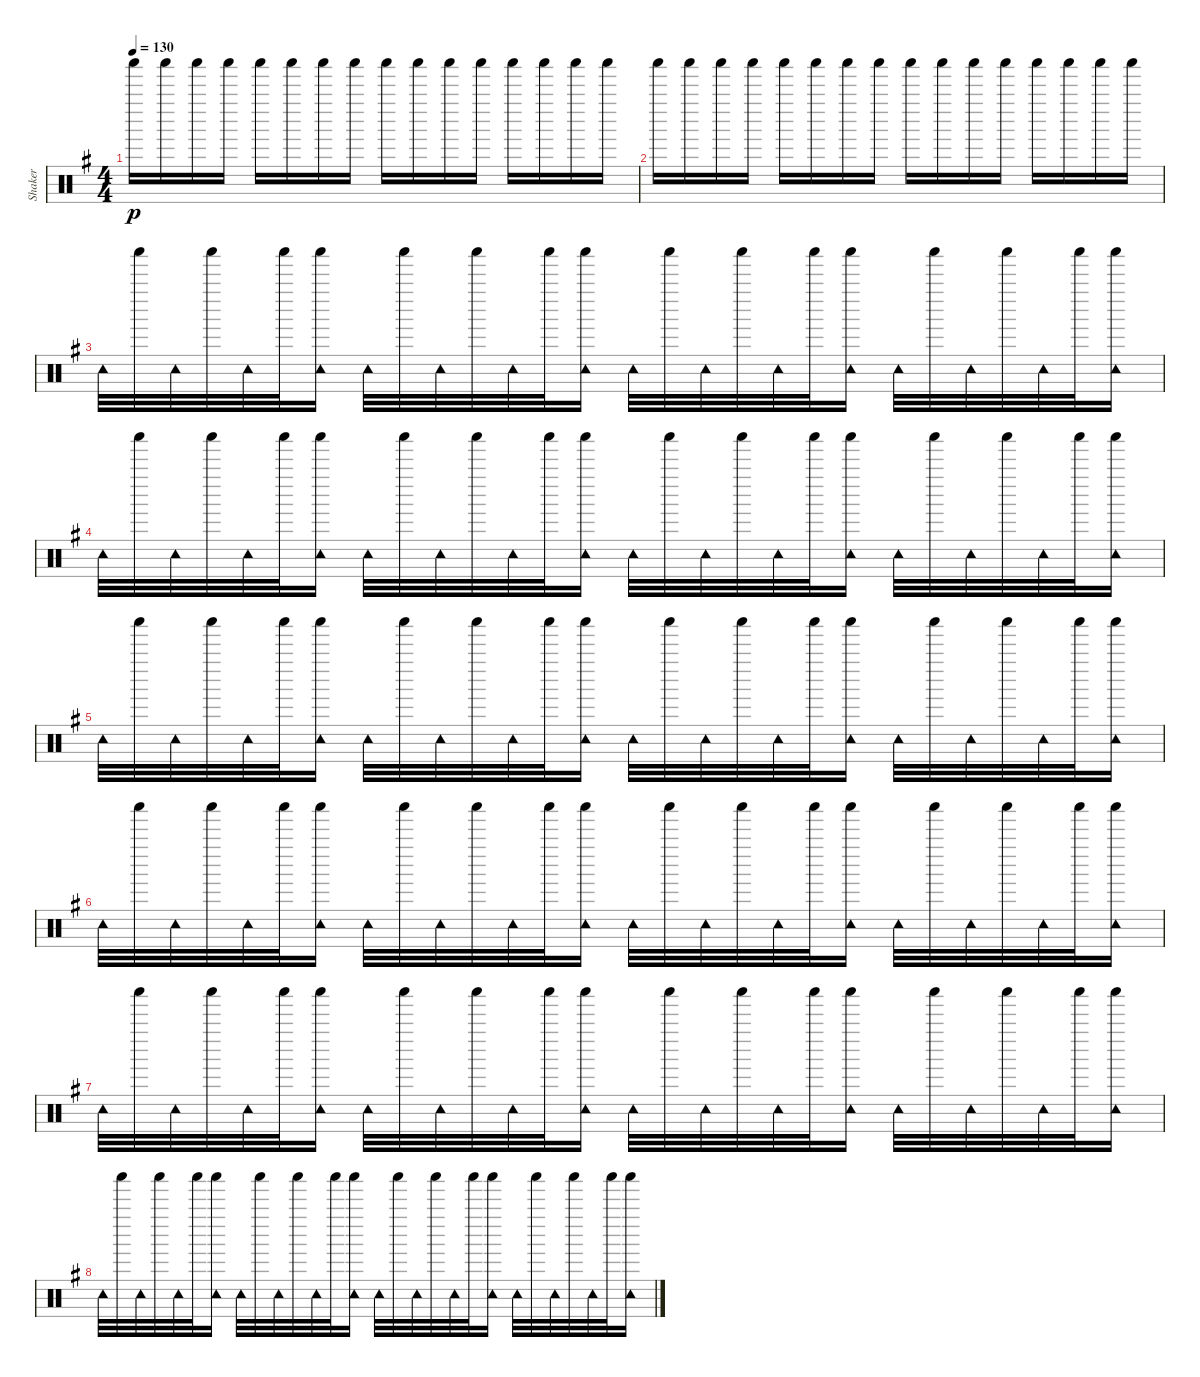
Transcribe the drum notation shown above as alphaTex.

\track ("Shaker" "Shaker") {instrument percussion}
\staff {score}
\articulation defaults
\ts (4 4)
\tempo 130
\clef neutral
\ks g "Shaker (hit)".16{dy p} "Shaker (hit)".16 "Shaker (hit)".16 "Shaker (hit)".16 "Shaker (hit)".16 "Shaker (hit)".16 "Shaker (hit)".16 "Shaker (hit)".16 "Shaker (hit)".16 "Shaker (hit)".16 "Shaker (hit)".16 "Shaker (hit)".16 "Shaker (hit)".16 "Shaker (hit)".16 "Shaker (hit)".16 "Shaker (hit)".16
|
"Shaker (hit)".16 "Shaker (hit)".16 "Shaker (hit)".16 "Shaker (hit)".16 "Shaker (hit)".16 "Shaker (hit)".16 "Shaker (hit)".16 "Shaker (hit)".16 "Shaker (hit)".16 "Shaker (hit)".16 "Shaker (hit)".16 "Shaker (hit)".16 "Shaker (hit)".16 "Shaker (hit)".16 "Shaker (hit)".16 "Shaker (hit)".16 |
"Tambourine (hit)".32 "Shaker (hit)".32 "Tambourine (hit)".32 "Shaker (hit)".32 "Tambourine (hit)".32 "Shaker (hit)".32 ("Tambourine (hit)" "Shaker (hit)").16 "Tambourine (hit)".32 "Shaker (hit)".32 "Tambourine (hit)".32 "Shaker (hit)".32 "Tambourine (hit)".32 "Shaker (hit)".32 ("Tambourine (hit)" "Shaker (hit)").16 "Tambourine (hit)".32 "Shaker (hit)".32 "Tambourine (hit)".32 "Shaker (hit)".32 "Tambourine (hit)".32 "Shaker (hit)".32 ("Tambourine (hit)" "Shaker (hit)").16 "Tambourine (hit)".32 "Shaker (hit)".32 "Tambourine (hit)".32 "Shaker (hit)".32 "Tambourine (hit)".32 "Shaker (hit)".32 ("Tambourine (hit)" "Shaker (hit)").16 |
"Tambourine (hit)".32 "Shaker (hit)".32 "Tambourine (hit)".32 "Shaker (hit)".32 "Tambourine (hit)".32 "Shaker (hit)".32 ("Tambourine (hit)" "Shaker (hit)").16 "Tambourine (hit)".32 "Shaker (hit)".32 "Tambourine (hit)".32 "Shaker (hit)".32 "Tambourine (hit)".32 "Shaker (hit)".32 ("Tambourine (hit)" "Shaker (hit)").16 "Tambourine (hit)".32 "Shaker (hit)".32 "Tambourine (hit)".32 "Shaker (hit)".32 "Tambourine (hit)".32 "Shaker (hit)".32 ("Tambourine (hit)" "Shaker (hit)").16 "Tambourine (hit)".32 "Shaker (hit)".32 "Tambourine (hit)".32 "Shaker (hit)".32 "Tambourine (hit)".32 "Shaker (hit)".32 ("Tambourine (hit)" "Shaker (hit)").16 |
"Tambourine (hit)".32 "Shaker (hit)".32 "Tambourine (hit)".32 "Shaker (hit)".32 "Tambourine (hit)".32 "Shaker (hit)".32 ("Tambourine (hit)" "Shaker (hit)").16 "Tambourine (hit)".32 "Shaker (hit)".32 "Tambourine (hit)".32 "Shaker (hit)".32 "Tambourine (hit)".32 "Shaker (hit)".32 ("Tambourine (hit)" "Shaker (hit)").16 "Tambourine (hit)".32 "Shaker (hit)".32 "Tambourine (hit)".32 "Shaker (hit)".32 "Tambourine (hit)".32 "Shaker (hit)".32 ("Tambourine (hit)" "Shaker (hit)").16 "Tambourine (hit)".32 "Shaker (hit)".32 "Tambourine (hit)".32 "Shaker (hit)".32 "Tambourine (hit)".32 "Shaker (hit)".32 ("Tambourine (hit)" "Shaker (hit)").16 |
"Tambourine (hit)".32 "Shaker (hit)".32 "Tambourine (hit)".32 "Shaker (hit)".32 "Tambourine (hit)".32 "Shaker (hit)".32 ("Tambourine (hit)" "Shaker (hit)").16 "Tambourine (hit)".32 "Shaker (hit)".32 "Tambourine (hit)".32 "Shaker (hit)".32 "Tambourine (hit)".32 "Shaker (hit)".32 ("Tambourine (hit)" "Shaker (hit)").16 "Tambourine (hit)".32 "Shaker (hit)".32 "Tambourine (hit)".32 "Shaker (hit)".32 "Tambourine (hit)".32 "Shaker (hit)".32 ("Tambourine (hit)" "Shaker (hit)").16 "Tambourine (hit)".32 "Shaker (hit)".32 "Tambourine (hit)".32 "Shaker (hit)".32 "Tambourine (hit)".32 "Shaker (hit)".32 ("Tambourine (hit)" "Shaker (hit)").16 |
"Tambourine (hit)".32 "Shaker (hit)".32 "Tambourine (hit)".32 "Shaker (hit)".32 "Tambourine (hit)".32 "Shaker (hit)".32 ("Tambourine (hit)" "Shaker (hit)").16 "Tambourine (hit)".32 "Shaker (hit)".32 "Tambourine (hit)".32 "Shaker (hit)".32 "Tambourine (hit)".32 "Shaker (hit)".32 ("Tambourine (hit)" "Shaker (hit)").16 "Tambourine (hit)".32 "Shaker (hit)".32 "Tambourine (hit)".32 "Shaker (hit)".32 "Tambourine (hit)".32 "Shaker (hit)".32 ("Tambourine (hit)" "Shaker (hit)").16 "Tambourine (hit)".32 "Shaker (hit)".32 "Tambourine (hit)".32 "Shaker (hit)".32 "Tambourine (hit)".32 "Shaker (hit)".32 ("Tambourine (hit)" "Shaker (hit)").16 |
"Tambourine (hit)".32 "Shaker (hit)".32 "Tambourine (hit)".32 "Shaker (hit)".32 "Tambourine (hit)".32 "Shaker (hit)".32 ("Tambourine (hit)" "Shaker (hit)").16 "Tambourine (hit)".32 "Shaker (hit)".32 "Tambourine (hit)".32 "Shaker (hit)".32 "Tambourine (hit)".32 "Shaker (hit)".32 ("Tambourine (hit)" "Shaker (hit)").16 "Tambourine (hit)".32 "Shaker (hit)".32 "Tambourine (hit)".32 "Shaker (hit)".32 "Tambourine (hit)".32 "Shaker (hit)".32 ("Tambourine (hit)" "Shaker (hit)").16 "Tambourine (hit)".32 "Shaker (hit)".32 "Tambourine (hit)".32 "Shaker (hit)".32 "Tambourine (hit)".32 "Shaker (hit)".32 ("Tambourine (hit)" "Shaker (hit)").16
